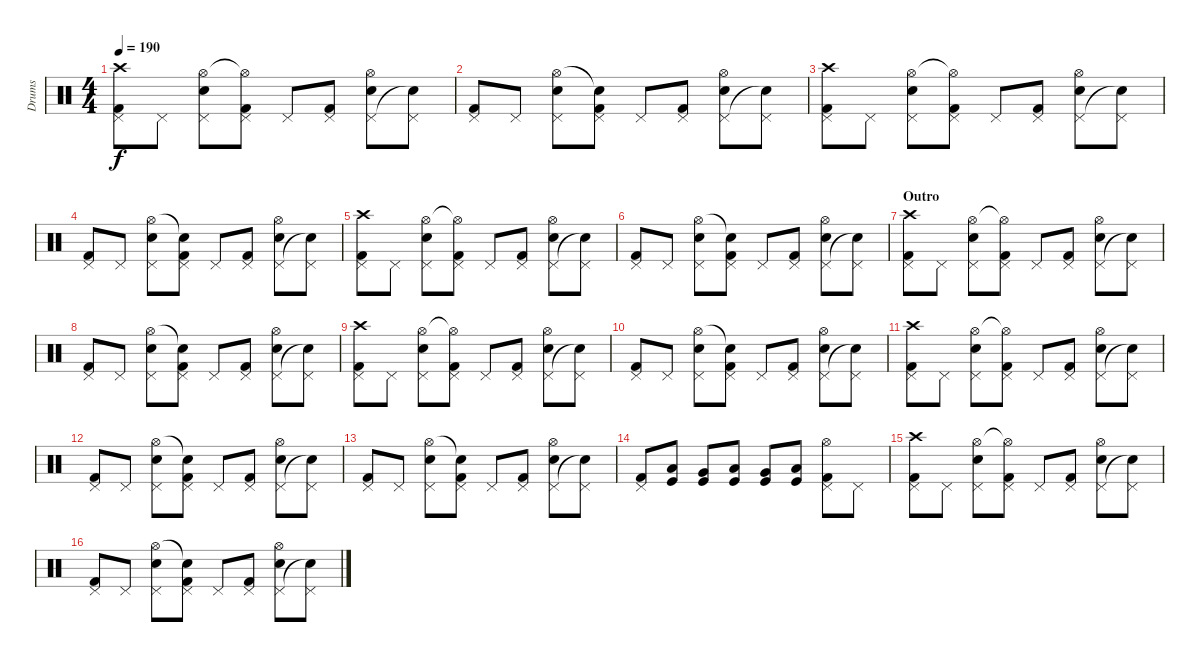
\track ("Drums" "Drums") {instrument percussion}
\staff {score}
\articulation defaults
\ts (4 4)
\tempo 190
\clef neutral
\ks c
("Kick (hit) 2" "Pedal Hi-Hat (hit)" "Crash high (hit)").8{dy f} "Pedal Hi-Hat (hit)".8 ("Snare (hit) 2" "Pedal Hi-Hat (hit)" "Hi-Hat (open)").8 ("Kick (hit) 2" "Pedal Hi-Hat (hit)" "Hi-Hat (open)"{t}).8 "Pedal Hi-Hat (hit)".8 ("Kick (hit) 2" "Pedal Hi-Hat (hit)").8 ("Snare (hit) 2" "Pedal Hi-Hat (hit)" "Hi-Hat (open)").8 ("Pedal Hi-Hat (hit)" "Snare (hit)"{t}).8 |
("Kick (hit) 2" "Pedal Hi-Hat (hit)").8 "Pedal Hi-Hat (hit)".8 ("Snare (hit) 2" "Pedal Hi-Hat (hit)" "Hi-Hat (open)").8 ("Kick (hit) 2" "Pedal Hi-Hat (hit)" "Snare (hit)"{t}).8 "Pedal Hi-Hat (hit)".8 ("Kick (hit) 2" "Pedal Hi-Hat (hit)").8 ("Snare (hit) 2" "Pedal Hi-Hat (hit)" "Hi-Hat (open)").8 ("Pedal Hi-Hat (hit)" "Snare (hit)"{t}).8 |
("Kick (hit) 2" "Pedal Hi-Hat (hit)" "Crash high (hit)").8 "Pedal Hi-Hat (hit)".8 ("Snare (hit) 2" "Pedal Hi-Hat (hit)" "Hi-Hat (open)").8 ("Kick (hit) 2" "Pedal Hi-Hat (hit)" "Hi-Hat (open)"{t}).8 "Pedal Hi-Hat (hit)".8 ("Kick (hit) 2" "Pedal Hi-Hat (hit)").8 ("Snare (hit) 2" "Pedal Hi-Hat (hit)" "Hi-Hat (open)").8 ("Pedal Hi-Hat (hit)" "Snare (hit)"{t}).8 |
("Kick (hit) 2" "Pedal Hi-Hat (hit)").8 "Pedal Hi-Hat (hit)".8 ("Snare (hit) 2" "Pedal Hi-Hat (hit)" "Hi-Hat (open)").8 ("Kick (hit) 2" "Pedal Hi-Hat (hit)" "Snare (hit)"{t}).8 "Pedal Hi-Hat (hit)".8 ("Kick (hit) 2" "Pedal Hi-Hat (hit)").8 ("Snare (hit) 2" "Pedal Hi-Hat (hit)" "Hi-Hat (open)").8 ("Pedal Hi-Hat (hit)" "Snare (hit)"{t}).8 |
("Kick (hit) 2" "Pedal Hi-Hat (hit)" "Crash high (hit)").8 "Pedal Hi-Hat (hit)".8 ("Snare (hit) 2" "Pedal Hi-Hat (hit)" "Hi-Hat (open)").8 ("Kick (hit) 2" "Pedal Hi-Hat (hit)" "Hi-Hat (open)"{t}).8 "Pedal Hi-Hat (hit)".8 ("Kick (hit) 2" "Pedal Hi-Hat (hit)").8 ("Snare (hit) 2" "Pedal Hi-Hat (hit)" "Hi-Hat (open)").8 ("Pedal Hi-Hat (hit)" "Snare (hit)"{t}).8 |
("Kick (hit) 2" "Pedal Hi-Hat (hit)").8 "Pedal Hi-Hat (hit)".8 ("Snare (hit) 2" "Pedal Hi-Hat (hit)" "Hi-Hat (open)").8 ("Kick (hit) 2" "Pedal Hi-Hat (hit)" "Snare (hit)"{t}).8 "Pedal Hi-Hat (hit)".8 ("Kick (hit) 2" "Pedal Hi-Hat (hit)").8 ("Snare (hit) 2" "Pedal Hi-Hat (hit)" "Hi-Hat (open)").8 ("Pedal Hi-Hat (hit)" "Snare (hit)"{t}).8 |
\section ("" "Outro")
("Kick (hit) 2" "Pedal Hi-Hat (hit)" "Crash high (hit)").8 "Pedal Hi-Hat (hit)".8 ("Snare (hit) 2" "Pedal Hi-Hat (hit)" "Hi-Hat (open)").8 ("Kick (hit) 2" "Pedal Hi-Hat (hit)" "Hi-Hat (open)"{t}).8 "Pedal Hi-Hat (hit)".8 ("Kick (hit) 2" "Pedal Hi-Hat (hit)").8 ("Snare (hit) 2" "Pedal Hi-Hat (hit)" "Hi-Hat (open)").8 ("Pedal Hi-Hat (hit)" "Snare (hit)"{t}).8 |
("Kick (hit) 2" "Pedal Hi-Hat (hit)").8 "Pedal Hi-Hat (hit)".8 ("Snare (hit) 2" "Pedal Hi-Hat (hit)" "Hi-Hat (open)").8 ("Kick (hit) 2" "Pedal Hi-Hat (hit)" "Snare (hit)"{t}).8 "Pedal Hi-Hat (hit)".8 ("Kick (hit) 2" "Pedal Hi-Hat (hit)").8 ("Snare (hit) 2" "Pedal Hi-Hat (hit)" "Hi-Hat (open)").8 ("Pedal Hi-Hat (hit)" "Snare (hit)"{t}).8 |
("Kick (hit) 2" "Pedal Hi-Hat (hit)" "Crash high (hit)").8 "Pedal Hi-Hat (hit)".8 ("Snare (hit) 2" "Pedal Hi-Hat (hit)" "Hi-Hat (open)").8 ("Kick (hit) 2" "Pedal Hi-Hat (hit)" "Hi-Hat (open)"{t}).8 "Pedal Hi-Hat (hit)".8 ("Kick (hit) 2" "Pedal Hi-Hat (hit)").8 ("Snare (hit) 2" "Pedal Hi-Hat (hit)" "Hi-Hat (open)").8 ("Pedal Hi-Hat (hit)" "Snare (hit)"{t}).8 |
("Kick (hit) 2" "Pedal Hi-Hat (hit)").8 "Pedal Hi-Hat (hit)".8 ("Snare (hit) 2" "Pedal Hi-Hat (hit)" "Hi-Hat (open)").8 ("Kick (hit) 2" "Pedal Hi-Hat (hit)" "Snare (hit)"{t}).8 "Pedal Hi-Hat (hit)".8 ("Kick (hit) 2" "Pedal Hi-Hat (hit)").8 ("Snare (hit) 2" "Pedal Hi-Hat (hit)" "Hi-Hat (open)").8 ("Pedal Hi-Hat (hit)" "Snare (hit)"{t}).8 |
("Kick (hit) 2" "Pedal Hi-Hat (hit)" "Crash high (hit)").8 "Pedal Hi-Hat (hit)".8 ("Snare (hit) 2" "Pedal Hi-Hat (hit)" "Hi-Hat (open)").8 ("Kick (hit) 2" "Pedal Hi-Hat (hit)" "Hi-Hat (open)"{t}).8 "Pedal Hi-Hat (hit)".8 ("Kick (hit) 2" "Pedal Hi-Hat (hit)").8 ("Snare (hit) 2" "Pedal Hi-Hat (hit)" "Hi-Hat (open)").8 ("Pedal Hi-Hat (hit)" "Snare (hit)"{t}).8 |
("Kick (hit) 2" "Pedal Hi-Hat (hit)").8 "Pedal Hi-Hat (hit)".8 ("Snare (hit) 2" "Pedal Hi-Hat (hit)" "Hi-Hat (open)").8 ("Kick (hit) 2" "Pedal Hi-Hat (hit)" "Snare (hit)"{t}).8 "Pedal Hi-Hat (hit)".8 ("Kick (hit) 2" "Pedal Hi-Hat (hit)").8 ("Snare (hit) 2" "Pedal Hi-Hat (hit)" "Hi-Hat (open)").8 ("Pedal Hi-Hat (hit)" "Snare (hit)"{t}).8 |
("Kick (hit) 2" "Pedal Hi-Hat (hit)").8 "Pedal Hi-Hat (hit)".8 ("Snare (hit) 2" "Pedal Hi-Hat (hit)" "Hi-Hat (open)").8 ("Kick (hit) 2" "Pedal Hi-Hat (hit)" "Snare (hit)"{t}).8 "Pedal Hi-Hat (hit)".8 ("Kick (hit) 2" "Pedal Hi-Hat (hit)").8 ("Snare (hit) 2" "Pedal Hi-Hat (hit)" "Hi-Hat (open)").8 ("Pedal Hi-Hat (hit)" "Snare (hit)"{t}).8 |
("Kick (hit) 2" "Pedal Hi-Hat (hit)").8 ("Low Tom (hit)" "Kick (hit)").8 ("Very Low Tom (hit)" "Kick (hit)").8 ("Low Floor Tom (hit)" "Kick (hit)").8 ("Very Low Tom (hit)" "Kick (hit)").8 ("Low Tom (hit)" "Kick (hit)").8 ("Kick (hit) 2" "Pedal Hi-Hat (hit)" "Hi-Hat (open)").8 "Pedal Hi-Hat (hit)".8 |
("Kick (hit) 2" "Pedal Hi-Hat (hit)" "Crash high (hit)").8 "Pedal Hi-Hat (hit)".8 ("Snare (hit) 2" "Pedal Hi-Hat (hit)" "Hi-Hat (open)").8 ("Kick (hit) 2" "Pedal Hi-Hat (hit)" "Hi-Hat (open)"{t}).8 "Pedal Hi-Hat (hit)".8 ("Kick (hit) 2" "Pedal Hi-Hat (hit)").8 ("Snare (hit) 2" "Pedal Hi-Hat (hit)" "Hi-Hat (open)").8 ("Pedal Hi-Hat (hit)" "Snare (hit)"{t}).8 |
("Kick (hit) 2" "Pedal Hi-Hat (hit)").8 "Pedal Hi-Hat (hit)".8 ("Snare (hit) 2" "Pedal Hi-Hat (hit)" "Hi-Hat (open)").8 ("Kick (hit) 2" "Pedal Hi-Hat (hit)" "Snare (hit)"{t}).8 "Pedal Hi-Hat (hit)".8 ("Kick (hit) 2" "Pedal Hi-Hat (hit)").8 ("Snare (hit) 2" "Pedal Hi-Hat (hit)" "Hi-Hat (open)").8 ("Pedal Hi-Hat (hit)" "Snare (hit)"{t}).8
